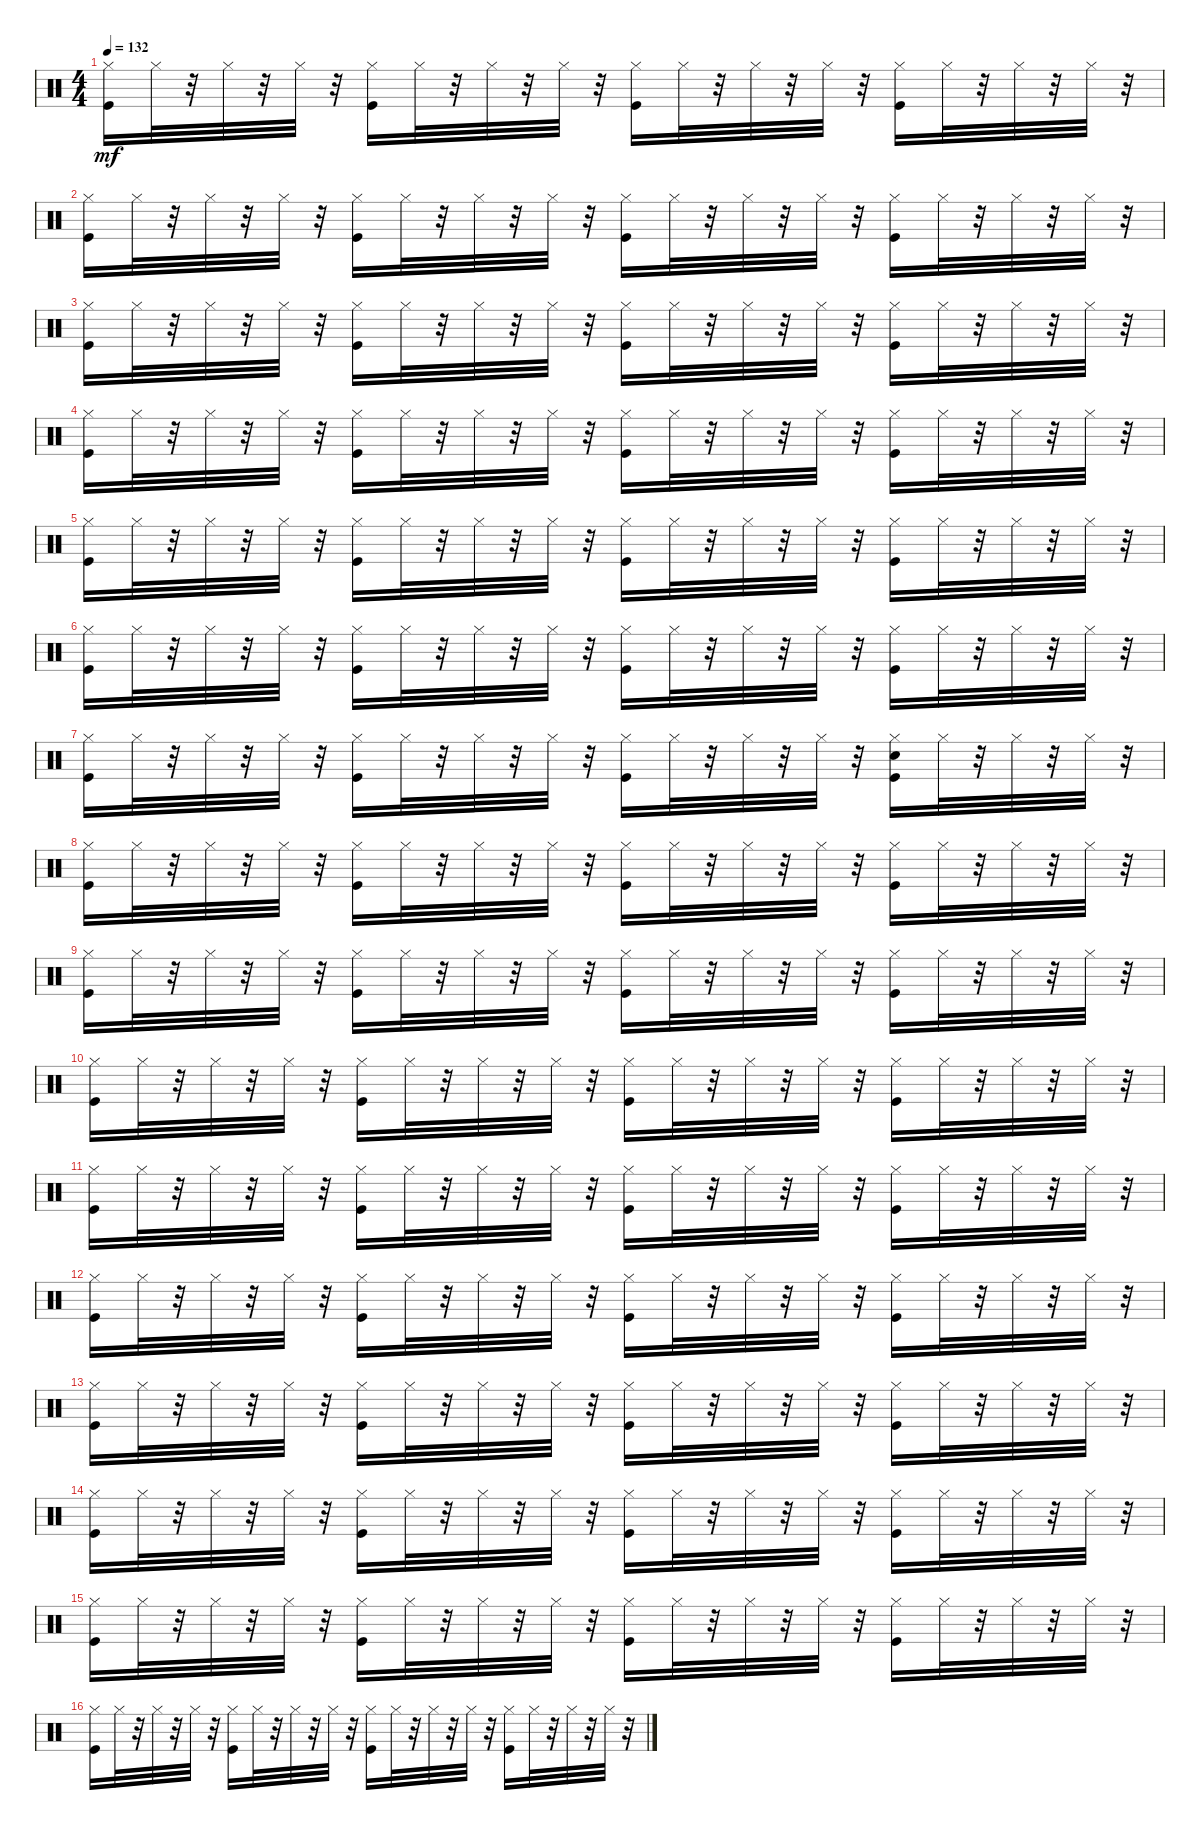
\track "" {instrument percussion}
\staff {score}
\articulation defaults
\ts (4 4)
\tempo 132
\clef neutral
\ks c
("Hi-Hat (closed)" "Kick (hit)").16{dy mf} "Hi-Hat (closed)".32 r.32 "Hi-Hat (closed)".32 r.32 "Hi-Hat (closed)".32 r.32 ("Hi-Hat (closed)" "Kick (hit)").16 "Hi-Hat (closed)".32 r.32 "Hi-Hat (closed)".32 r.32 "Hi-Hat (closed)".32 r.32 ("Hi-Hat (closed)" "Kick (hit)").16 "Hi-Hat (closed)".32 r.32 "Hi-Hat (closed)".32 r.32 "Hi-Hat (closed)".32 r.32 ("Hi-Hat (closed)" "Kick (hit)").16 "Hi-Hat (closed)".32 r.32 "Hi-Hat (closed)".32 r.32 "Hi-Hat (closed)".32 r.32 |
("Hi-Hat (closed)" "Kick (hit)").16 "Hi-Hat (closed)".32 r.32 "Hi-Hat (closed)".32 r.32 "Hi-Hat (closed)".32 r.32 ("Hi-Hat (closed)" "Kick (hit)").16 "Hi-Hat (closed)".32 r.32 "Hi-Hat (closed)".32 r.32 "Hi-Hat (closed)".32 r.32 ("Hi-Hat (closed)" "Kick (hit)").16 "Hi-Hat (closed)".32 r.32 "Hi-Hat (closed)".32 r.32 "Hi-Hat (closed)".32 r.32 ("Hi-Hat (closed)" "Kick (hit)").16 "Hi-Hat (closed)".32 r.32 "Hi-Hat (closed)".32 r.32 "Hi-Hat (closed)".32 r.32 |
("Hi-Hat (closed)" "Kick (hit)").16 "Hi-Hat (closed)".32 r.32 "Hi-Hat (closed)".32 r.32 "Hi-Hat (closed)".32 r.32 ("Hi-Hat (closed)" "Kick (hit)").16 "Hi-Hat (closed)".32 r.32 "Hi-Hat (closed)".32 r.32 "Hi-Hat (closed)".32 r.32 ("Hi-Hat (closed)" "Kick (hit)").16 "Hi-Hat (closed)".32 r.32 "Hi-Hat (closed)".32 r.32 "Hi-Hat (closed)".32 r.32 ("Hi-Hat (closed)" "Kick (hit)").16 "Hi-Hat (closed)".32 r.32 "Hi-Hat (closed)".32 r.32 "Hi-Hat (closed)".32 r.32 |
("Hi-Hat (closed)" "Kick (hit)").16 "Hi-Hat (closed)".32 r.32 "Hi-Hat (closed)".32 r.32 "Hi-Hat (closed)".32 r.32 ("Hi-Hat (closed)" "Kick (hit)").16 "Hi-Hat (closed)".32 r.32 "Hi-Hat (closed)".32 r.32 "Hi-Hat (closed)".32 r.32 ("Hi-Hat (closed)" "Kick (hit)").16 "Hi-Hat (closed)".32 r.32 "Hi-Hat (closed)".32 r.32 "Hi-Hat (closed)".32 r.32 ("Hi-Hat (closed)" "Kick (hit)").16 "Hi-Hat (closed)".32 r.32 "Hi-Hat (closed)".32 r.32 "Hi-Hat (closed)".32 r.32 |
("Hi-Hat (closed)" "Kick (hit)").16 "Hi-Hat (closed)".32 r.32 "Hi-Hat (closed)".32 r.32 "Hi-Hat (closed)".32 r.32 ("Hi-Hat (closed)" "Kick (hit)").16 "Hi-Hat (closed)".32 r.32 "Hi-Hat (closed)".32 r.32 "Hi-Hat (closed)".32 r.32 ("Hi-Hat (closed)" "Kick (hit)").16 "Hi-Hat (closed)".32 r.32 "Hi-Hat (closed)".32 r.32 "Hi-Hat (closed)".32 r.32 ("Hi-Hat (closed)" "Kick (hit)").16 "Hi-Hat (closed)".32 r.32 "Hi-Hat (closed)".32 r.32 "Hi-Hat (closed)".32 r.32 |
("Hi-Hat (closed)" "Kick (hit)").16 "Hi-Hat (closed)".32 r.32 "Hi-Hat (closed)".32 r.32 "Hi-Hat (closed)".32 r.32 ("Hi-Hat (closed)" "Kick (hit)").16 "Hi-Hat (closed)".32 r.32 "Hi-Hat (closed)".32 r.32 "Hi-Hat (closed)".32 r.32 ("Hi-Hat (closed)" "Kick (hit)").16 "Hi-Hat (closed)".32 r.32 "Hi-Hat (closed)".32 r.32 "Hi-Hat (closed)".32 r.32 ("Hi-Hat (closed)" "Kick (hit)").16 "Hi-Hat (closed)".32 r.32 "Hi-Hat (closed)".32 r.32 "Hi-Hat (closed)".32 r.32 |
("Hi-Hat (closed)" "Kick (hit)").16 "Hi-Hat (closed)".32 r.32 "Hi-Hat (closed)".32 r.32 "Hi-Hat (closed)".32 r.32 ("Hi-Hat (closed)" "Kick (hit)").16 "Hi-Hat (closed)".32 r.32 "Hi-Hat (closed)".32 r.32 "Hi-Hat (closed)".32 r.32 ("Hi-Hat (closed)" "Kick (hit)").16 "Hi-Hat (closed)".32 r.32 "Hi-Hat (closed)".32 r.32 "Hi-Hat (closed)".32 r.32 ("Hi-Hat (closed)" "Kick (hit)" "Metronome (bell)").16 "Hi-Hat (closed)".32 r.32 "Hi-Hat (closed)".32 r.32 "Hi-Hat (closed)".32 r.32 |
("Hi-Hat (closed)" "Kick (hit)").16 "Hi-Hat (closed)".32 r.32 "Hi-Hat (closed)".32 r.32 "Hi-Hat (closed)".32 r.32 ("Hi-Hat (closed)" "Kick (hit)").16 "Hi-Hat (closed)".32 r.32 "Hi-Hat (closed)".32 r.32 "Hi-Hat (closed)".32 r.32 ("Hi-Hat (closed)" "Kick (hit)").16 "Hi-Hat (closed)".32 r.32 "Hi-Hat (closed)".32 r.32 "Hi-Hat (closed)".32 r.32 ("Hi-Hat (closed)" "Kick (hit)").16 "Hi-Hat (closed)".32 r.32 "Hi-Hat (closed)".32 r.32 "Hi-Hat (closed)".32 r.32 |
("Hi-Hat (closed)" "Kick (hit)").16 "Hi-Hat (closed)".32 r.32 "Hi-Hat (closed)".32 r.32 "Hi-Hat (closed)".32 r.32 ("Hi-Hat (closed)" "Kick (hit)").16 "Hi-Hat (closed)".32 r.32 "Hi-Hat (closed)".32 r.32 "Hi-Hat (closed)".32 r.32 ("Hi-Hat (closed)" "Kick (hit)").16 "Hi-Hat (closed)".32 r.32 "Hi-Hat (closed)".32 r.32 "Hi-Hat (closed)".32 r.32 ("Hi-Hat (closed)" "Kick (hit)").16 "Hi-Hat (closed)".32 r.32 "Hi-Hat (closed)".32 r.32 "Hi-Hat (closed)".32 r.32 |
("Hi-Hat (closed)" "Kick (hit)").16 "Hi-Hat (closed)".32 r.32 "Hi-Hat (closed)".32 r.32 "Hi-Hat (closed)".32 r.32 ("Hi-Hat (closed)" "Kick (hit)").16 "Hi-Hat (closed)".32 r.32 "Hi-Hat (closed)".32 r.32 "Hi-Hat (closed)".32 r.32 ("Hi-Hat (closed)" "Kick (hit)").16 "Hi-Hat (closed)".32 r.32 "Hi-Hat (closed)".32 r.32 "Hi-Hat (closed)".32 r.32 ("Hi-Hat (closed)" "Kick (hit)").16 "Hi-Hat (closed)".32 r.32 "Hi-Hat (closed)".32 r.32 "Hi-Hat (closed)".32 r.32 |
("Hi-Hat (closed)" "Kick (hit)").16 "Hi-Hat (closed)".32 r.32 "Hi-Hat (closed)".32 r.32 "Hi-Hat (closed)".32 r.32 ("Hi-Hat (closed)" "Kick (hit)").16 "Hi-Hat (closed)".32 r.32 "Hi-Hat (closed)".32 r.32 "Hi-Hat (closed)".32 r.32 ("Hi-Hat (closed)" "Kick (hit)").16 "Hi-Hat (closed)".32 r.32 "Hi-Hat (closed)".32 r.32 "Hi-Hat (closed)".32 r.32 ("Hi-Hat (closed)" "Kick (hit)").16 "Hi-Hat (closed)".32 r.32 "Hi-Hat (closed)".32 r.32 "Hi-Hat (closed)".32 r.32 |
("Hi-Hat (closed)" "Kick (hit)").16 "Hi-Hat (closed)".32 r.32 "Hi-Hat (closed)".32 r.32 "Hi-Hat (closed)".32 r.32 ("Hi-Hat (closed)" "Kick (hit)").16 "Hi-Hat (closed)".32 r.32 "Hi-Hat (closed)".32 r.32 "Hi-Hat (closed)".32 r.32 ("Hi-Hat (closed)" "Kick (hit)").16 "Hi-Hat (closed)".32 r.32 "Hi-Hat (closed)".32 r.32 "Hi-Hat (closed)".32 r.32 ("Hi-Hat (closed)" "Kick (hit)").16 "Hi-Hat (closed)".32 r.32 "Hi-Hat (closed)".32 r.32 "Hi-Hat (closed)".32 r.32 |
("Hi-Hat (closed)" "Kick (hit)").16 "Hi-Hat (closed)".32 r.32 "Hi-Hat (closed)".32 r.32 "Hi-Hat (closed)".32 r.32 ("Hi-Hat (closed)" "Kick (hit)").16 "Hi-Hat (closed)".32 r.32 "Hi-Hat (closed)".32 r.32 "Hi-Hat (closed)".32 r.32 ("Hi-Hat (closed)" "Kick (hit)").16 "Hi-Hat (closed)".32 r.32 "Hi-Hat (closed)".32 r.32 "Hi-Hat (closed)".32 r.32 ("Hi-Hat (closed)" "Kick (hit)").16 "Hi-Hat (closed)".32 r.32 "Hi-Hat (closed)".32 r.32 "Hi-Hat (closed)".32 r.32 |
("Hi-Hat (closed)" "Kick (hit)").16 "Hi-Hat (closed)".32 r.32 "Hi-Hat (closed)".32 r.32 "Hi-Hat (closed)".32 r.32 ("Hi-Hat (closed)" "Kick (hit)").16 "Hi-Hat (closed)".32 r.32 "Hi-Hat (closed)".32 r.32 "Hi-Hat (closed)".32 r.32 ("Hi-Hat (closed)" "Kick (hit)").16 "Hi-Hat (closed)".32 r.32 "Hi-Hat (closed)".32 r.32 "Hi-Hat (closed)".32 r.32 ("Hi-Hat (closed)" "Kick (hit)").16 "Hi-Hat (closed)".32 r.32 "Hi-Hat (closed)".32 r.32 "Hi-Hat (closed)".32 r.32 |
("Hi-Hat (closed)" "Kick (hit)").16 "Hi-Hat (closed)".32 r.32 "Hi-Hat (closed)".32 r.32 "Hi-Hat (closed)".32 r.32 ("Hi-Hat (closed)" "Kick (hit)").16 "Hi-Hat (closed)".32 r.32 "Hi-Hat (closed)".32 r.32 "Hi-Hat (closed)".32 r.32 ("Hi-Hat (closed)" "Kick (hit)").16 "Hi-Hat (closed)".32 r.32 "Hi-Hat (closed)".32 r.32 "Hi-Hat (closed)".32 r.32 ("Hi-Hat (closed)" "Kick (hit)").16 "Hi-Hat (closed)".32 r.32 "Hi-Hat (closed)".32 r.32 "Hi-Hat (closed)".32 r.32 |
("Hi-Hat (closed)" "Kick (hit)").16 "Hi-Hat (closed)".32 r.32 "Hi-Hat (closed)".32 r.32 "Hi-Hat (closed)".32 r.32 ("Hi-Hat (closed)" "Kick (hit)").16 "Hi-Hat (closed)".32 r.32 "Hi-Hat (closed)".32 r.32 "Hi-Hat (closed)".32 r.32 ("Hi-Hat (closed)" "Kick (hit)").16 "Hi-Hat (closed)".32 r.32 "Hi-Hat (closed)".32 r.32 "Hi-Hat (closed)".32 r.32 ("Hi-Hat (closed)" "Kick (hit)").16 "Hi-Hat (closed)".32 r.32 "Hi-Hat (closed)".32 r.32 "Hi-Hat (closed)".32 r.32
